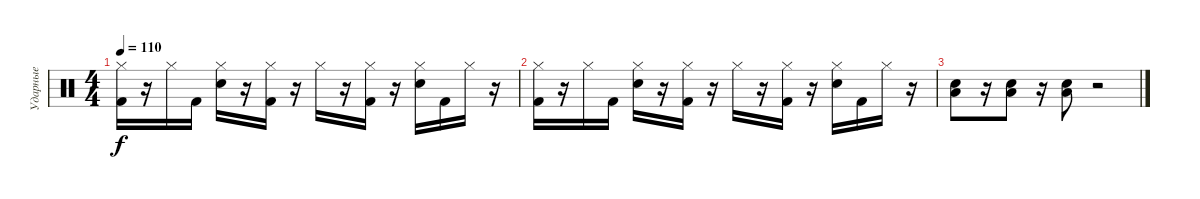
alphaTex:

\track ("Ударные" "Ударные") {instrument percussion}
\staff {score}
\articulation defaults
\ts (4 4)
\tempo 110
\clef neutral
\ks c
("Hi-Hat (closed)" "Kick (hit) 2").16{dy f} r.16 "Hi-Hat (closed)".16 "Kick (hit) 2".16 ("Hi-Hat (closed)" "Snare (hit) 2").16 r.16 ("Hi-Hat (closed)" "Kick (hit) 2").16 r.16 "Hi-Hat (closed)".16 r.16 ("Hi-Hat (closed)" "Kick (hit) 2").16 r.16 ("Hi-Hat (closed)" "Snare (hit) 2").16 "Kick (hit) 2".16 "Hi-Hat (closed)".16 r.16 |
("Hi-Hat (closed)" "Kick (hit) 2").16 r.16 "Hi-Hat (closed)".16 "Kick (hit) 2".16 ("Hi-Hat (closed)" "Snare (hit) 2").16 r.16 ("Hi-Hat (closed)" "Kick (hit) 2").16 r.16 "Hi-Hat (closed)".16 r.16 ("Hi-Hat (closed)" "Kick (hit) 2").16 r.16 ("Hi-Hat (closed)" "Snare (hit) 2").16 "Kick (hit) 2".16 "Hi-Hat (closed)".16 r.16 |
("Low Tom (hit)" "Snare (hit) 2").8 r.16 ("Low Tom (hit)" "Snare (hit) 2").8 r.16 ("Low Tom (hit)" "Snare (hit) 2").8 r.2
